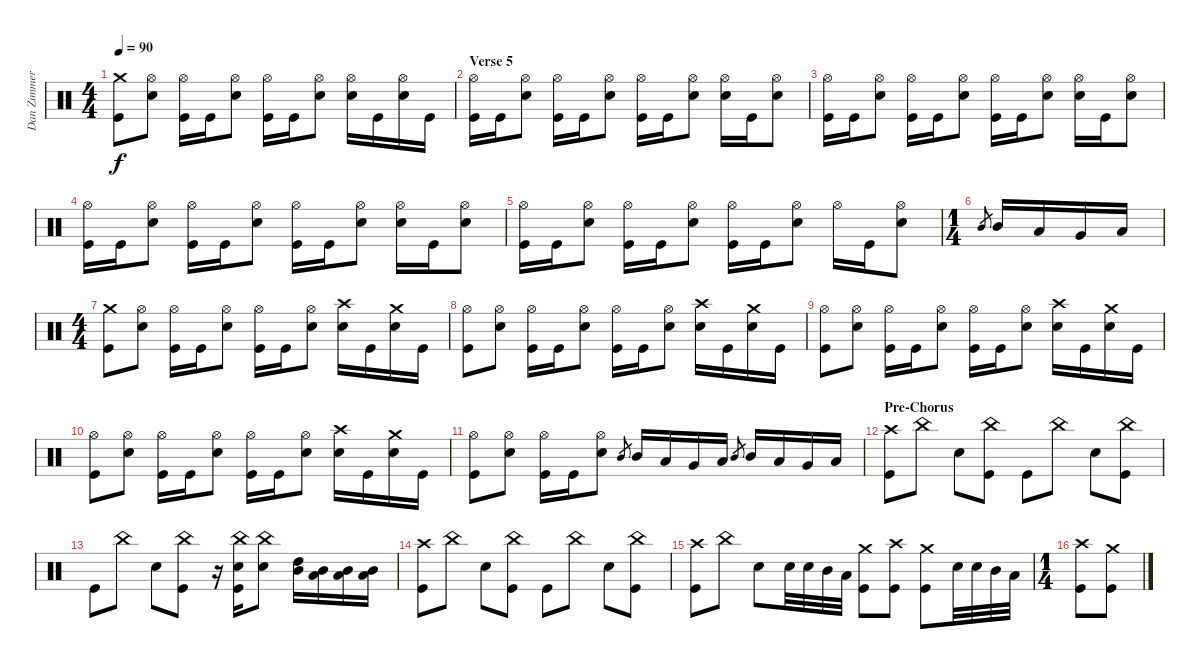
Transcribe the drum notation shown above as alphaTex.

\track ("Dan Zimmerman" "Dan Zimmer") {instrument percussion}
\staff {score}
\articulation defaults
\ts (4 4)
\tempo 90
\clef neutral
\ks c
("Crash medium (hit)" "Kick (hit)").8{dy f} ("Hi-Hat (open)" "Snare (hit) 2").8 ("Hi-Hat (open)" "Kick (hit)").16 "Kick (hit)".16 ("Hi-Hat (open)" "Snare (hit) 2").8 ("Hi-Hat (open)" "Kick (hit)").16 "Kick (hit)".16 ("Hi-Hat (open)" "Snare (hit) 2").8 ("Hi-Hat (open)" "Snare (hit) 2").16 "Kick (hit)".16 ("Hi-Hat (open)" "Snare (hit) 2").16 "Kick (hit)".16 |
\section ("" "Verse 5")
("Hi-Hat (open)" "Kick (hit)").16 "Kick (hit)".16 ("Hi-Hat (open)" "Snare (hit) 2").8 ("Hi-Hat (open)" "Kick (hit)").16 "Kick (hit)".16 ("Hi-Hat (open)" "Snare (hit) 2").8 ("Hi-Hat (open)" "Kick (hit)").16 "Kick (hit)".16 ("Hi-Hat (open)" "Snare (hit) 2").8 ("Hi-Hat (open)" "Snare (hit) 2").16 "Kick (hit)".16 ("Hi-Hat (open)" "Snare (hit) 2").8 |
("Hi-Hat (open)" "Kick (hit)").16 "Kick (hit)".16 ("Hi-Hat (open)" "Snare (hit) 2").8 ("Hi-Hat (open)" "Kick (hit)").16 "Kick (hit)".16 ("Hi-Hat (open)" "Snare (hit) 2").8 ("Hi-Hat (open)" "Kick (hit)").16 "Kick (hit)".16 ("Hi-Hat (open)" "Snare (hit) 2").8 ("Hi-Hat (open)" "Snare (hit) 2").16 "Kick (hit)".16 ("Hi-Hat (open)" "Snare (hit) 2").8 |
("Hi-Hat (open)" "Kick (hit)").16 "Kick (hit)".16 ("Hi-Hat (open)" "Snare (hit) 2").8 ("Hi-Hat (open)" "Kick (hit)").16 "Kick (hit)".16 ("Hi-Hat (open)" "Snare (hit) 2").8 ("Hi-Hat (open)" "Kick (hit)").16 "Kick (hit)".16 ("Hi-Hat (open)" "Snare (hit) 2").8 ("Hi-Hat (open)" "Snare (hit) 2").16 "Kick (hit)".16 ("Hi-Hat (open)" "Snare (hit) 2").8 |
("Hi-Hat (open)" "Kick (hit)").16 "Kick (hit)".16 ("Hi-Hat (open)" "Snare (hit) 2").8 ("Hi-Hat (open)" "Kick (hit)").16 "Kick (hit)".16 ("Hi-Hat (open)" "Snare (hit) 2").8 ("Hi-Hat (open)" "Kick (hit)").16 "Kick (hit)".16 ("Hi-Hat (open)" "Snare (hit) 2").8 "Hi-Hat (open)".16 "Kick (hit)".16 ("Hi-Hat (open)" "Snare (hit) 2").8 |
\ts (1 4)
"Mid Tom (hit)".8{gr} "Mid Tom (hit)".16 "Low Tom (hit)".16 "Very Low Tom (hit)".16 "Low Floor Tom (hit)".16 |
\ts (4 4)
("Crash medium (hit)" "Kick (hit)").8 ("Hi-Hat (open)" "Snare (hit) 2").8 ("Hi-Hat (open)" "Kick (hit)").16 "Kick (hit)".16 ("Hi-Hat (open)" "Snare (hit) 2").8 ("Hi-Hat (open)" "Kick (hit)").16 "Kick (hit)".16 ("Hi-Hat (open)" "Snare (hit) 2").8 ("Crash high (hit)" "Snare (hit) 2").16 "Kick (hit)".16 ("Crash medium (hit)" "Snare (hit) 2").16 "Kick (hit)".16 |
("Hi-Hat (open)" "Kick (hit)").8 ("Hi-Hat (open)" "Snare (hit) 2").8 ("Hi-Hat (open)" "Kick (hit)").16 "Kick (hit)".16 ("Hi-Hat (open)" "Snare (hit) 2").8 ("Hi-Hat (open)" "Kick (hit)").16 "Kick (hit)".16 ("Hi-Hat (open)" "Snare (hit) 2").8 ("Crash high (hit)" "Snare (hit) 2").16 "Kick (hit)".16 ("Crash medium (hit)" "Snare (hit) 2").16 "Kick (hit)".16 |
("Hi-Hat (open)" "Kick (hit)").8 ("Hi-Hat (open)" "Snare (hit) 2").8 ("Hi-Hat (open)" "Kick (hit)").16 "Kick (hit)".16 ("Hi-Hat (open)" "Snare (hit) 2").8 ("Hi-Hat (open)" "Kick (hit)").16 "Kick (hit)".16 ("Hi-Hat (open)" "Snare (hit) 2").8 ("Crash high (hit)" "Snare (hit) 2").16 "Kick (hit)".16 ("Crash medium (hit)" "Snare (hit) 2").16 "Kick (hit)".16 |
("Hi-Hat (open)" "Kick (hit)").8 ("Hi-Hat (open)" "Snare (hit) 2").8 ("Hi-Hat (open)" "Kick (hit)").16 "Kick (hit)".16 ("Hi-Hat (open)" "Snare (hit) 2").8 ("Hi-Hat (open)" "Kick (hit)").16 "Kick (hit)".16 ("Hi-Hat (open)" "Snare (hit) 2").8 ("Crash high (hit)" "Snare (hit) 2").16 "Kick (hit)".16 ("Crash medium (hit)" "Snare (hit) 2").16 "Kick (hit)".16 |
("Hi-Hat (open)" "Kick (hit)").8 ("Hi-Hat (open)" "Snare (hit) 2").8 ("Hi-Hat (open)" "Kick (hit)").16 "Kick (hit)".16 ("Hi-Hat (open)" "Snare (hit) 2").8 "Mid Tom (hit)".8{gr} "Mid Tom (hit)".16 "Low Tom (hit)".16 "Very Low Tom (hit)".16 "Low Floor Tom (hit)".16 "Mid Tom (hit)".8{gr} "Mid Tom (hit)".16 "Low Tom (hit)".16 "Very Low Tom (hit)".16 "Low Floor Tom (hit)".16 |
\section ("" "Pre-Chorus")
("Crash high (hit)" "Kick (hit)").8 "China (hit)".8 "Snare (hit) 2".8 ("China (hit)" "Kick (hit)").8 "Kick (hit)".8 "China (hit)".8 "Snare (hit) 2".8 ("China (hit)" "Kick (hit)").8 |
"Kick (hit)".8 "China (hit)".8 "Snare (hit) 2".8 ("China (hit)" "Kick (hit)").8 r.16 ("China (hit)" "Snare (hit) 2" "Kick (hit)").16 ("China (hit)" "Snare (hit) 2").8 ("High Tom (hit)" "Mid Tom (hit)").16 ("Mid Tom (hit)" "Low Tom (hit)").16 ("Mid Tom (hit)" "Low Tom (hit)").16 ("Mid Tom (hit)" "Low Tom (hit)").16 |
("Crash high (hit)" "Kick (hit)").8 "China (hit)".8 "Snare (hit) 2".8 ("China (hit)" "Kick (hit)").8 "Kick (hit)".8 "China (hit)".8 "Snare (hit) 2".8 ("China (hit)" "Kick (hit)").8 |
("Crash high (hit)" "Kick (hit)").8 "China (hit)".8 "Snare (hit) 2".8 "Snare (hit) 2".32 "Snare (hit) 2".32 "Mid Tom (hit)".32 "Low Tom (hit)".32 ("Crash medium (hit)" "Kick (hit)").8 ("Crash high (hit)" "Kick (hit)").8 ("Crash medium (hit)" "Kick (hit)").8 "Snare (hit) 2".32 "Snare (hit) 2".32 "Mid Tom (hit)".32 "Low Tom (hit)".32 |
\ts (1 4)
("Crash high (hit)" "Kick (hit)").8 ("Crash medium (hit)" "Kick (hit)").8
